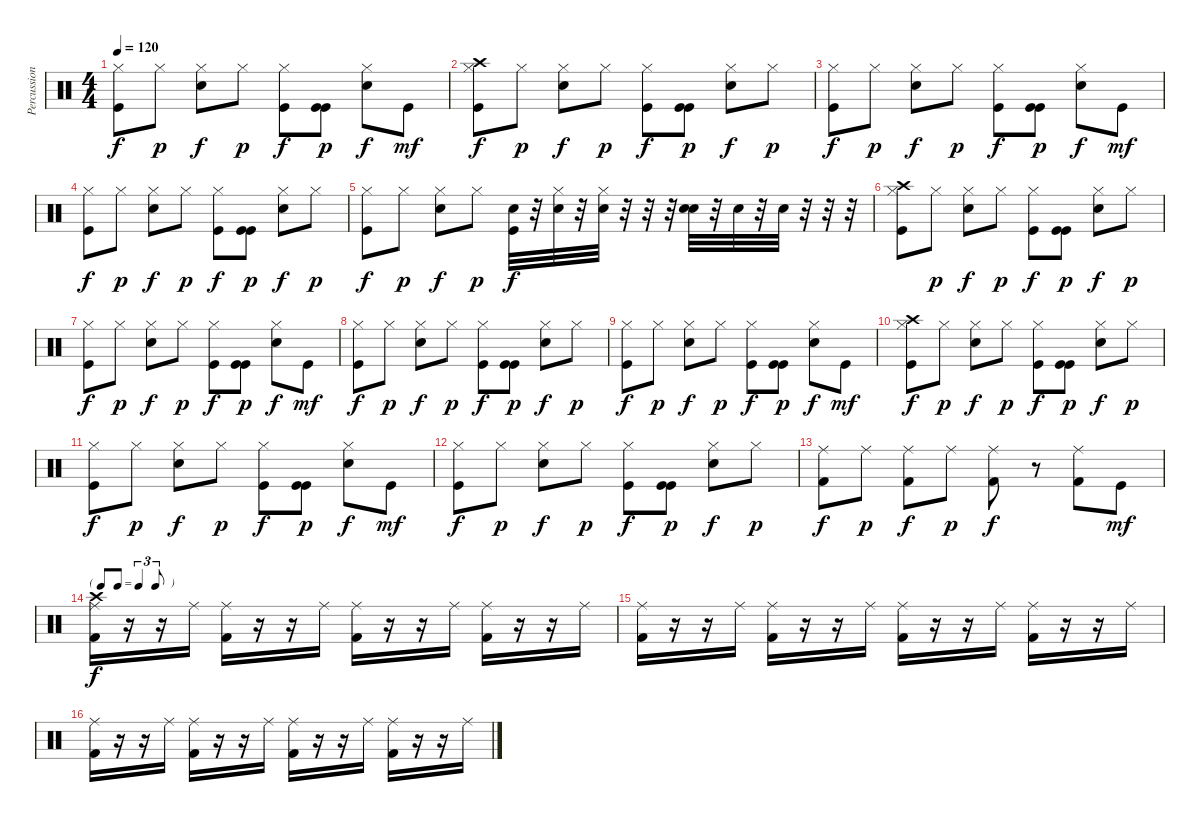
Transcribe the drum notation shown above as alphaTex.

\track ("Percussions" "Percussion") {instrument percussion}
\staff {score}
\articulation defaults
\ts (4 4)
\tempo 120
\clef neutral
\ks c
("Kick (hit)" "Hi-Hat (closed)").8{dy f} "Hi-Hat (closed)".8{dy p} ("Snare (hit) 2" "Hi-Hat (closed)").8{dy f} "Hi-Hat (closed)".8{dy p} ("Kick (hit)" "Hi-Hat (closed)").8{dy f} ("Kick (hit)" "Kick (hit)").8{dy p} ("Snare (hit) 2" "Hi-Hat (closed)").8{dy f} "Kick (hit)".8{dy mf} |
("Kick (hit)" "Hi-Hat (closed)" "Crash high (hit)").8{dy f} "Hi-Hat (closed)".8{dy p} ("Snare (hit) 2" "Hi-Hat (closed)").8{dy f} "Hi-Hat (closed)".8{dy p} ("Kick (hit)" "Hi-Hat (closed)").8{dy f} ("Kick (hit)" "Kick (hit)").8{dy p} ("Snare (hit) 2" "Hi-Hat (closed)").8{dy f} "Hi-Hat (closed)".8{dy p} |
("Kick (hit)" "Hi-Hat (closed)").8{dy f} "Hi-Hat (closed)".8{dy p} ("Snare (hit) 2" "Hi-Hat (closed)").8{dy f} "Hi-Hat (closed)".8{dy p} ("Kick (hit)" "Hi-Hat (closed)").8{dy f} ("Kick (hit)" "Kick (hit)").8{dy p} ("Snare (hit) 2" "Hi-Hat (closed)").8{dy f} "Kick (hit)".8{dy mf} |
("Kick (hit)" "Hi-Hat (closed)").8{dy f} "Hi-Hat (closed)".8{dy p} ("Snare (hit) 2" "Hi-Hat (closed)").8{dy f} "Hi-Hat (closed)".8{dy p} ("Kick (hit)" "Hi-Hat (closed)").8{dy f} ("Kick (hit)" "Kick (hit)").8{dy p} ("Snare (hit) 2" "Hi-Hat (closed)").8{dy f} "Hi-Hat (closed)".8{dy p} |
("Kick (hit)" "Hi-Hat (closed)").8{dy f} "Hi-Hat (closed)".8{dy p} ("Snare (hit) 2" "Hi-Hat (closed)").8{dy f} "Hi-Hat (closed)".8{dy p} ("Electric Snare (hit)" "Kick (hit)").32{dy f} r.32 ("Electric Snare (hit)" "Hi-Hat (closed)").32 r.32 ("Electric Snare (hit)" "Hi-Hat (closed)").32 r.32 r.32 r.32 ("Electric Snare (hit)" "Snare (hit) 2").32 r.32 "Electric Snare (hit)".32 r.32 "Electric Snare (hit)".32 r.32 r.32 r.32 |
("Kick (hit)" "Hi-Hat (closed)" "Crash high (hit)").8 "Hi-Hat (closed)".8{dy p} ("Snare (hit) 2" "Hi-Hat (closed)").8{dy f} "Hi-Hat (closed)".8{dy p} ("Kick (hit)" "Hi-Hat (closed)").8{dy f} ("Kick (hit)" "Kick (hit)").8{dy p} ("Snare (hit) 2" "Hi-Hat (closed)").8{dy f} "Hi-Hat (closed)".8{dy p} |
("Kick (hit)" "Hi-Hat (closed)").8{dy f} "Hi-Hat (closed)".8{dy p} ("Snare (hit) 2" "Hi-Hat (closed)").8{dy f} "Hi-Hat (closed)".8{dy p} ("Kick (hit)" "Hi-Hat (closed)").8{dy f} ("Kick (hit)" "Kick (hit)").8{dy p} ("Snare (hit) 2" "Hi-Hat (closed)").8{dy f} "Kick (hit)".8{dy mf} |
("Kick (hit)" "Hi-Hat (closed)").8{dy f} "Hi-Hat (closed)".8{dy p} ("Snare (hit) 2" "Hi-Hat (closed)").8{dy f} "Hi-Hat (closed)".8{dy p} ("Kick (hit)" "Hi-Hat (closed)").8{dy f} ("Kick (hit)" "Kick (hit)").8{dy p} ("Snare (hit) 2" "Hi-Hat (closed)").8{dy f} "Hi-Hat (closed)".8{dy p} |
("Kick (hit)" "Hi-Hat (closed)").8{dy f} "Hi-Hat (closed)".8{dy p} ("Snare (hit) 2" "Hi-Hat (closed)").8{dy f} "Hi-Hat (closed)".8{dy p} ("Kick (hit)" "Hi-Hat (closed)").8{dy f} ("Kick (hit)" "Kick (hit)").8{dy p} ("Snare (hit) 2" "Hi-Hat (closed)").8{dy f} "Kick (hit)".8{dy mf} |
("Kick (hit)" "Hi-Hat (closed)" "Crash high (hit)").8{dy f} "Hi-Hat (closed)".8{dy p} ("Snare (hit) 2" "Hi-Hat (closed)").8{dy f} "Hi-Hat (closed)".8{dy p} ("Kick (hit)" "Hi-Hat (closed)").8{dy f} ("Kick (hit)" "Kick (hit)").8{dy p} ("Snare (hit) 2" "Hi-Hat (closed)").8{dy f} "Hi-Hat (closed)".8{dy p} |
("Kick (hit)" "Hi-Hat (closed)").8{dy f} "Hi-Hat (closed)".8{dy p} ("Snare (hit) 2" "Hi-Hat (closed)").8{dy f} "Hi-Hat (closed)".8{dy p} ("Kick (hit)" "Hi-Hat (closed)").8{dy f} ("Kick (hit)" "Kick (hit)").8{dy p} ("Snare (hit) 2" "Hi-Hat (closed)").8{dy f} "Kick (hit)".8{dy mf} |
("Kick (hit)" "Hi-Hat (closed)").8{dy f} "Hi-Hat (closed)".8{dy p} ("Snare (hit) 2" "Hi-Hat (closed)").8{dy f} "Hi-Hat (closed)".8{dy p} ("Kick (hit)" "Hi-Hat (closed)").8{dy f} ("Kick (hit)" "Kick (hit)").8{dy p} ("Snare (hit) 2" "Hi-Hat (closed)").8{dy f} "Hi-Hat (closed)".8{dy p} |
("Ride (middle)" "Kick (hit) 2").8{dy f} "Ride (middle)".8{dy p} ("Ride (middle)" "Kick (hit) 2").8{dy f} "Ride (middle)".8{dy p} ("Ride (middle)" "Kick (hit) 2").8{dy f} r.8 ("Ride (middle)" "Kick (hit) 2").8 "Kick (hit)".8{dy mf} |
\tf triplet8th
("Ride (middle)" "Kick (hit) 2" "Crash high (hit)").16{dy f} r.16 r.16 "Ride (middle)".16 ("Ride (middle)" "Kick (hit) 2").16 r.16 r.16 "Ride (middle)".16 ("Ride (middle)" "Kick (hit) 2").16 r.16 r.16 "Ride (middle)".16 ("Ride (middle)" "Kick (hit) 2").16 r.16 r.16 "Ride (middle)".16 |
("Ride (middle)" "Kick (hit) 2").16 r.16 r.16 "Ride (middle)".16 ("Ride (middle)" "Kick (hit) 2").16 r.16 r.16 "Ride (middle)".16 ("Ride (middle)" "Kick (hit) 2").16 r.16 r.16 "Ride (middle)".16 ("Ride (middle)" "Kick (hit) 2").16 r.16 r.16 "Ride (middle)".16 |
("Ride (middle)" "Kick (hit) 2").16 r.16 r.16 "Ride (middle)".16 ("Ride (middle)" "Kick (hit) 2").16 r.16 r.16 "Ride (middle)".16 ("Ride (middle)" "Kick (hit) 2").16 r.16 r.16 "Ride (middle)".16 ("Ride (middle)" "Kick (hit) 2").16 r.16 r.16 "Ride (middle)".16
